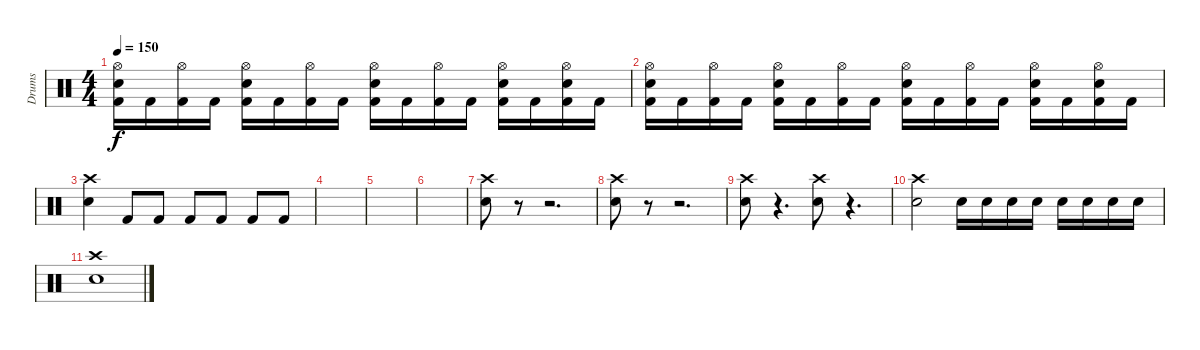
\track ("Drums" "Drums") {instrument percussion}
\staff {score}
\articulation defaults
\ts (4 4)
\tempo 150
\clef neutral
\ks aminor
("Hi-Hat (open)" "Electric Snare (hit)" "Kick (hit) 2").16{dy f} "Kick (hit) 2".16 ("Hi-Hat (open)" "Kick (hit) 2").16 "Kick (hit) 2".16 ("Hi-Hat (open)" "Electric Snare (hit)" "Kick (hit) 2").16 "Kick (hit) 2".16 ("Hi-Hat (open)" "Kick (hit) 2").16 "Kick (hit) 2".16 ("Hi-Hat (open)" "Electric Snare (hit)" "Kick (hit) 2").16 "Kick (hit) 2".16 ("Hi-Hat (open)" "Kick (hit) 2").16 "Kick (hit) 2".16 ("Hi-Hat (open)" "Electric Snare (hit)" "Kick (hit) 2").16 "Kick (hit) 2".16 ("Hi-Hat (open)" "Electric Snare (hit)" "Kick (hit) 2").16 "Kick (hit) 2".16 |
("Hi-Hat (open)" "Electric Snare (hit)" "Kick (hit) 2").16 "Kick (hit) 2".16 ("Hi-Hat (open)" "Kick (hit) 2").16 "Kick (hit) 2".16 ("Hi-Hat (open)" "Electric Snare (hit)" "Kick (hit) 2").16 "Kick (hit) 2".16 ("Hi-Hat (open)" "Kick (hit) 2").16 "Kick (hit) 2".16 ("Hi-Hat (open)" "Electric Snare (hit)" "Kick (hit) 2").16 "Kick (hit) 2".16 ("Hi-Hat (open)" "Kick (hit) 2").16 "Kick (hit) 2".16 ("Hi-Hat (open)" "Electric Snare (hit)" "Kick (hit) 2").16 "Kick (hit) 2".16 ("Hi-Hat (open)" "Electric Snare (hit)" "Kick (hit) 2").16 "Kick (hit) 2".16 |
("Crash high (hit)" "Electric Snare (hit)").4 "Kick (hit) 2".8 "Kick (hit) 2".8 "Kick (hit) 2".8 "Kick (hit) 2".8 "Kick (hit) 2".8 "Kick (hit) 2".8 |
|
|
|
("Crash high (hit)" "Snare (hit) 2").8 r.8 r.2{d} |
("Crash high (hit)" "Snare (hit) 2").8 r.8 r.2{d} |
("Crash high (hit)" "Snare (hit) 2").8 r.4{d} ("Crash high (hit)" "Snare (hit) 2").8 r.4{d} |
("Crash high (hit)" "Snare (hit) 2").2 "Snare (hit) 2".16 "Snare (hit) 2".16 "Snare (hit) 2".16 "Snare (hit) 2".16 "Snare (hit) 2".16 "Snare (hit) 2".16 "Snare (hit) 2".16 "Snare (hit) 2".16 |
("Crash high (hit)" "Snare (hit) 2").1
